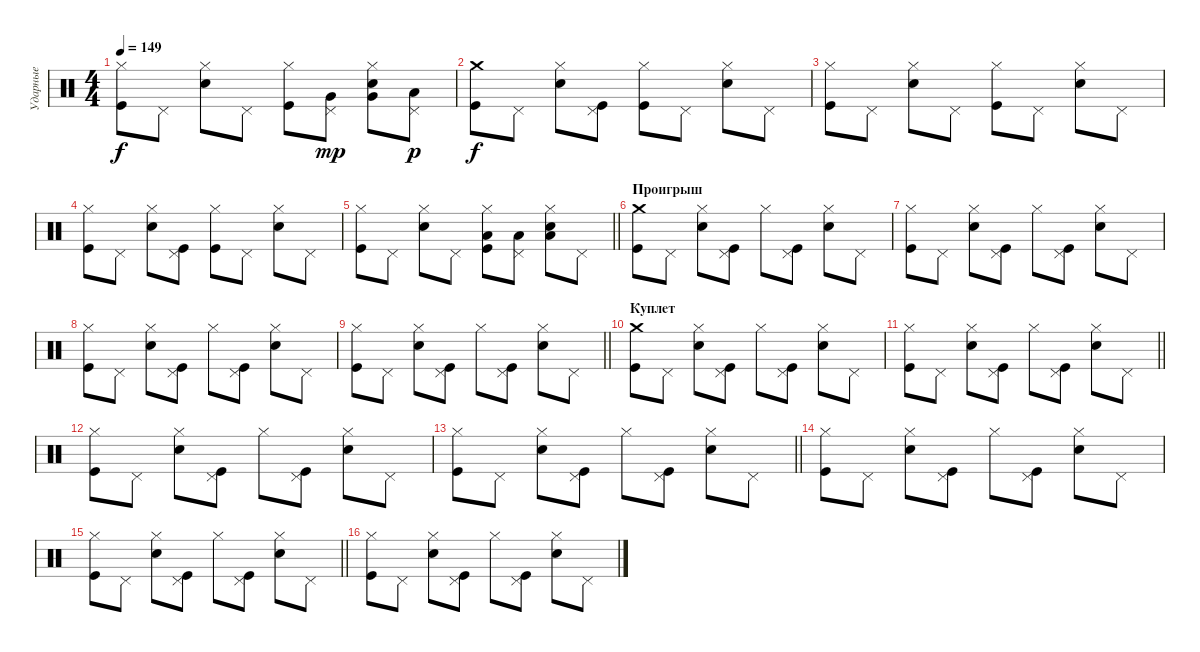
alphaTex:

\track ("Ударные" "Ударные") {instrument percussion}
\staff {score}
\articulation defaults
\ts (4 4)
\tempo 149
\clef neutral
\ks c
("Hi-Hat (closed)" "Kick (hit)").8{dy f} "Pedal Hi-Hat (hit)".8 ("Hi-Hat (closed)" "Snare (hit) 2").8 "Pedal Hi-Hat (hit)".8 ("Hi-Hat (closed)" "Kick (hit)").8 ("Pedal Hi-Hat (hit)" "Very Low Tom (hit)").8{dy mp} ("Hi-Hat (closed)" "Snare (hit) 2" "Very Low Tom (hit)").8 ("Pedal Hi-Hat (hit)" "Low Floor Tom (hit)").8{dy p} |
("Crash medium (hit)" "Kick (hit)").8{dy f} "Pedal Hi-Hat (hit)".8 ("Hi-Hat (closed)" "Snare (hit) 2").8 ("Pedal Hi-Hat (hit)" "Kick (hit)").8 ("Hi-Hat (closed)" "Kick (hit)").8 "Pedal Hi-Hat (hit)".8 ("Hi-Hat (closed)" "Snare (hit) 2").8 "Pedal Hi-Hat (hit)".8 |
("Hi-Hat (closed)" "Kick (hit)").8 "Pedal Hi-Hat (hit)".8 ("Hi-Hat (closed)" "Snare (hit) 2").8 "Pedal Hi-Hat (hit)".8 ("Hi-Hat (closed)" "Kick (hit)").8 "Pedal Hi-Hat (hit)".8 ("Hi-Hat (closed)" "Snare (hit) 2").8 "Pedal Hi-Hat (hit)".8 |
("Hi-Hat (closed)" "Kick (hit)").8 "Pedal Hi-Hat (hit)".8 ("Hi-Hat (closed)" "Snare (hit) 2").8 ("Pedal Hi-Hat (hit)" "Kick (hit)").8 ("Hi-Hat (closed)" "Kick (hit)").8 "Pedal Hi-Hat (hit)".8 ("Hi-Hat (closed)" "Snare (hit) 2").8 "Pedal Hi-Hat (hit)".8 |
\barLineRight lightlight
("Hi-Hat (closed)" "Kick (hit)").8 "Pedal Hi-Hat (hit)".8 ("Hi-Hat (closed)" "Snare (hit) 2").8 "Pedal Hi-Hat (hit)".8 ("Hi-Hat (closed)" "Kick (hit)" "Low Floor Tom (hit)").8 ("Pedal Hi-Hat (hit)" "Low Tom (hit)").8 ("Hi-Hat (closed)" "Snare (hit) 2" "Low Tom (hit)").8 "Pedal Hi-Hat (hit)".8 |
\section ("" "Проигрыш")
("Crash medium (hit)" "Kick (hit)").8 "Pedal Hi-Hat (hit)".8 ("Hi-Hat (closed)" "Snare (hit) 2").8 ("Pedal Hi-Hat (hit)" "Kick (hit)").8 "Hi-Hat (closed)".8 ("Pedal Hi-Hat (hit)" "Kick (hit)").8 ("Hi-Hat (closed)" "Snare (hit) 2").8 "Pedal Hi-Hat (hit)".8 |
("Hi-Hat (closed)" "Kick (hit)").8 "Pedal Hi-Hat (hit)".8 ("Hi-Hat (closed)" "Snare (hit) 2").8 ("Pedal Hi-Hat (hit)" "Kick (hit)").8 "Hi-Hat (closed)".8 ("Pedal Hi-Hat (hit)" "Kick (hit)").8 ("Hi-Hat (closed)" "Snare (hit) 2").8 "Pedal Hi-Hat (hit)".8 |
("Hi-Hat (closed)" "Kick (hit)").8 "Pedal Hi-Hat (hit)".8 ("Hi-Hat (closed)" "Snare (hit) 2").8 ("Pedal Hi-Hat (hit)" "Kick (hit)").8 "Hi-Hat (closed)".8 ("Pedal Hi-Hat (hit)" "Kick (hit)").8 ("Hi-Hat (closed)" "Snare (hit) 2").8 "Pedal Hi-Hat (hit)".8 |
\barLineRight lightlight
("Hi-Hat (closed)" "Kick (hit)").8 "Pedal Hi-Hat (hit)".8 ("Hi-Hat (closed)" "Snare (hit) 2").8 ("Pedal Hi-Hat (hit)" "Kick (hit)").8 "Hi-Hat (closed)".8 ("Pedal Hi-Hat (hit)" "Kick (hit)").8 ("Hi-Hat (closed)" "Snare (hit) 2").8 "Pedal Hi-Hat (hit)".8 |
\section ("" "Куплет")
("Crash medium (hit)" "Kick (hit)").8 "Pedal Hi-Hat (hit)".8 ("Hi-Hat (closed)" "Snare (hit) 2").8 ("Pedal Hi-Hat (hit)" "Kick (hit)").8 "Hi-Hat (closed)".8 ("Pedal Hi-Hat (hit)" "Kick (hit)").8 ("Hi-Hat (closed)" "Snare (hit) 2").8 "Pedal Hi-Hat (hit)".8 |
\barLineRight lightlight
("Hi-Hat (closed)" "Kick (hit)").8 "Pedal Hi-Hat (hit)".8 ("Hi-Hat (closed)" "Snare (hit) 2").8 ("Pedal Hi-Hat (hit)" "Kick (hit)").8 "Hi-Hat (closed)".8 ("Pedal Hi-Hat (hit)" "Kick (hit)").8 ("Hi-Hat (closed)" "Snare (hit) 2").8 "Pedal Hi-Hat (hit)".8 |
("Hi-Hat (closed)" "Kick (hit)").8 "Pedal Hi-Hat (hit)".8 ("Hi-Hat (closed)" "Snare (hit) 2").8 ("Pedal Hi-Hat (hit)" "Kick (hit)").8 "Hi-Hat (closed)".8 ("Pedal Hi-Hat (hit)" "Kick (hit)").8 ("Hi-Hat (closed)" "Snare (hit) 2").8 "Pedal Hi-Hat (hit)".8 |
\barLineRight lightlight
("Hi-Hat (closed)" "Kick (hit)").8 "Pedal Hi-Hat (hit)".8 ("Hi-Hat (closed)" "Snare (hit) 2").8 ("Pedal Hi-Hat (hit)" "Kick (hit)").8 "Hi-Hat (closed)".8 ("Pedal Hi-Hat (hit)" "Kick (hit)").8 ("Hi-Hat (closed)" "Snare (hit) 2").8 "Pedal Hi-Hat (hit)".8 |
("Hi-Hat (closed)" "Kick (hit)").8 "Pedal Hi-Hat (hit)".8 ("Hi-Hat (closed)" "Snare (hit) 2").8 ("Pedal Hi-Hat (hit)" "Kick (hit)").8 "Hi-Hat (closed)".8 ("Pedal Hi-Hat (hit)" "Kick (hit)").8 ("Hi-Hat (closed)" "Snare (hit) 2").8 "Pedal Hi-Hat (hit)".8 |
\barLineRight lightlight
("Hi-Hat (closed)" "Kick (hit)").8 "Pedal Hi-Hat (hit)".8 ("Hi-Hat (closed)" "Snare (hit) 2").8 ("Pedal Hi-Hat (hit)" "Kick (hit)").8 "Hi-Hat (closed)".8 ("Pedal Hi-Hat (hit)" "Kick (hit)").8 ("Hi-Hat (closed)" "Snare (hit) 2").8 "Pedal Hi-Hat (hit)".8 |
("Hi-Hat (closed)" "Kick (hit)").8 "Pedal Hi-Hat (hit)".8 ("Hi-Hat (closed)" "Snare (hit) 2").8 ("Pedal Hi-Hat (hit)" "Kick (hit)").8 "Hi-Hat (closed)".8 ("Pedal Hi-Hat (hit)" "Kick (hit)").8 ("Hi-Hat (closed)" "Snare (hit) 2").8 "Pedal Hi-Hat (hit)".8
